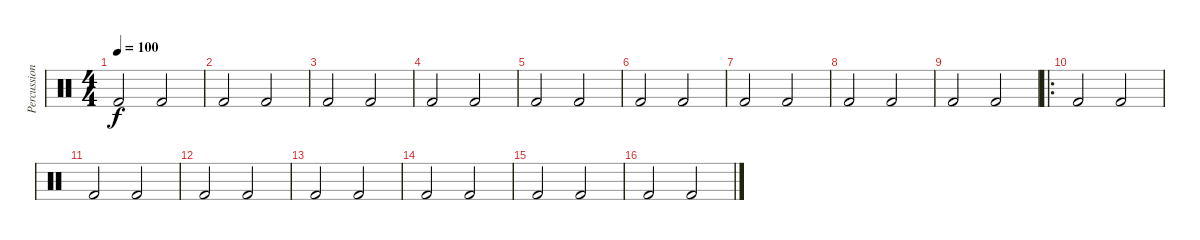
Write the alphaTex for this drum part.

\track ("Percussion" "Percussion") {mute instrument percussion}
\staff {score}
\articulation defaults
\ts (4 4)
\tempo 100
\clef neutral
\ks c "Kick (hit) 2".2{dy f} "Kick (hit) 2".2
|
"Kick (hit) 2".2 "Kick (hit) 2".2 |
"Kick (hit) 2".2 "Kick (hit) 2".2 |
"Kick (hit) 2".2 "Kick (hit) 2".2 |
"Kick (hit) 2".2 "Kick (hit) 2".2 |
"Kick (hit) 2".2 "Kick (hit) 2".2 |
"Kick (hit) 2".2 "Kick (hit) 2".2 |
"Kick (hit) 2".2 "Kick (hit) 2".2 |
"Kick (hit) 2".2 "Kick (hit) 2".2 |
\ro "Kick (hit) 2".2 "Kick (hit) 2".2
|
"Kick (hit) 2".2 "Kick (hit) 2".2 |
"Kick (hit) 2".2 "Kick (hit) 2".2 |
"Kick (hit) 2".2 "Kick (hit) 2".2 |
"Kick (hit) 2".2 "Kick (hit) 2".2 |
"Kick (hit) 2".2 "Kick (hit) 2".2 |
"Kick (hit) 2".2 "Kick (hit) 2".2
